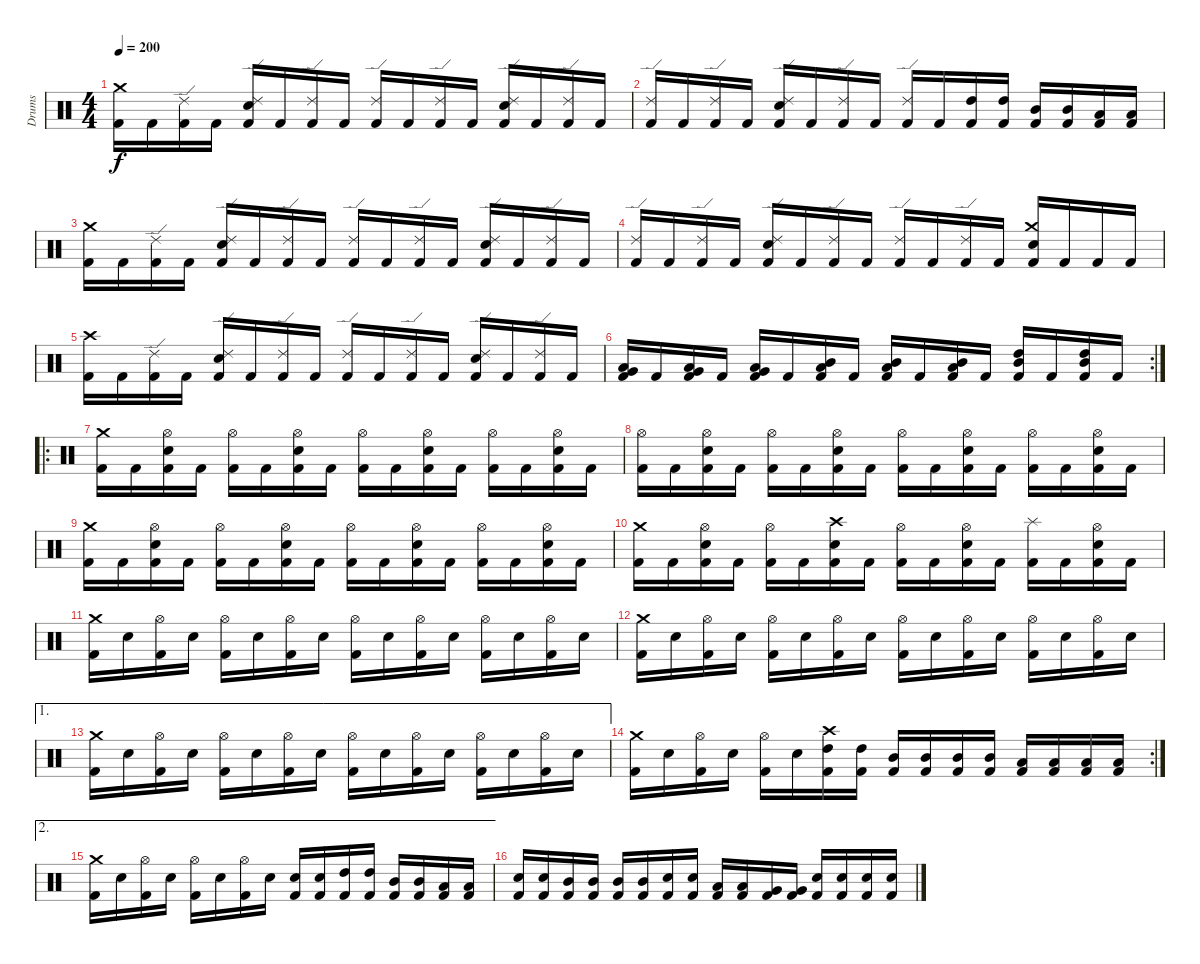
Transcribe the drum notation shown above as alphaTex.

\track ("Drums" "Drums") {instrument percussion}
\staff {score}
\articulation defaults
\ts (4 4)
\tempo 200
\clef neutral
\ks c
("Kick (hit) 2" "Crash medium (hit)").16{dy f} "Kick (hit) 2".16 ("Kick (hit) 2" "Ride (edge) 2").16 "Kick (hit) 2".16 ("Kick (hit) 2" "Electric Snare (hit)" "Ride (edge) 2").16 "Kick (hit) 2".16 ("Kick (hit) 2" "Ride (edge) 2").16 "Kick (hit) 2".16 ("Kick (hit) 2" "Ride (edge) 2").16 "Kick (hit) 2".16 ("Kick (hit) 2" "Ride (edge) 2").16 "Kick (hit) 2".16 ("Kick (hit) 2" "Electric Snare (hit)" "Ride (edge) 2").16 "Kick (hit) 2".16 ("Kick (hit) 2" "Ride (edge) 2").16 "Kick (hit) 2".16 |
("Kick (hit) 2" "Ride (edge) 2").16 "Kick (hit) 2".16 ("Kick (hit) 2" "Ride (edge) 2").16 "Kick (hit) 2".16 ("Kick (hit) 2" "Electric Snare (hit)" "Ride (edge) 2").16 "Kick (hit) 2".16 ("Kick (hit) 2" "Ride (edge) 2").16 "Kick (hit) 2".16 ("Kick (hit) 2" "Ride (edge) 2").16 "Kick (hit) 2".16 ("Kick (hit) 2" "High Tom (hit)").16 ("Kick (hit) 2" "High Tom (hit)").16 ("Kick (hit) 2" "Mid Tom (hit)").16 ("Kick (hit) 2" "Mid Tom (hit)").16 ("Kick (hit) 2" "Low Tom (hit)").16 ("Kick (hit) 2" "Low Tom (hit)").16 |
("Kick (hit) 2" "Crash medium (hit)").16 "Kick (hit) 2".16 ("Kick (hit) 2" "Ride (edge) 2").16 "Kick (hit) 2".16 ("Kick (hit) 2" "Electric Snare (hit)" "Ride (edge) 2").16 "Kick (hit) 2".16 ("Kick (hit) 2" "Ride (edge) 2").16 "Kick (hit) 2".16 ("Kick (hit) 2" "Ride (edge) 2").16 "Kick (hit) 2".16 ("Kick (hit) 2" "Ride (edge) 2").16 "Kick (hit) 2".16 ("Kick (hit) 2" "Electric Snare (hit)" "Ride (edge) 2").16 "Kick (hit) 2".16 ("Kick (hit) 2" "Ride (edge) 2").16 "Kick (hit) 2".16 |
("Kick (hit) 2" "Ride (edge) 2").16 "Kick (hit) 2".16 ("Kick (hit) 2" "Ride (edge) 2").16 "Kick (hit) 2".16 ("Kick (hit) 2" "Electric Snare (hit)" "Ride (edge) 2").16 "Kick (hit) 2".16 ("Kick (hit) 2" "Ride (edge) 2").16 "Kick (hit) 2".16 ("Kick (hit) 2" "Ride (edge) 2").16 "Kick (hit) 2".16 ("Kick (hit) 2" "Ride (edge) 2").16 "Kick (hit) 2".16 ("Kick (hit) 2" "Electric Snare (hit)" "Crash medium (hit)").16 "Kick (hit) 2".16 "Kick (hit) 2".16 "Kick (hit) 2".16 |
("Kick (hit) 2" "Crash high (hit)").16 "Kick (hit) 2".16 ("Kick (hit) 2" "Ride (edge) 2").16 "Kick (hit) 2".16 ("Kick (hit) 2" "Electric Snare (hit)" "Ride (edge) 2").16 "Kick (hit) 2".16 ("Kick (hit) 2" "Ride (edge) 2").16 "Kick (hit) 2".16 ("Kick (hit) 2" "Ride (edge) 2").16 "Kick (hit) 2".16 ("Kick (hit) 2" "Ride (edge) 2").16 "Kick (hit) 2".16 ("Kick (hit) 2" "Electric Snare (hit)" "Ride (edge) 2").16 "Kick (hit) 2".16 ("Kick (hit) 2" "Ride (edge) 2").16 "Kick (hit) 2".16 |
\rc 2
("Kick (hit) 2" "Very Low Tom (hit)" "Low Tom (hit)").16 "Kick (hit) 2".16 ("Kick (hit) 2" "Very Low Tom (hit)" "Low Tom (hit)").16 "Kick (hit) 2".16 ("Kick (hit) 2" "Very Low Tom (hit)" "Low Tom (hit)").16 "Kick (hit) 2".16 ("Kick (hit) 2" "Low Tom (hit)" "Mid Tom (hit)").16 "Kick (hit) 2".16 ("Kick (hit) 2" "Low Tom (hit)" "Mid Tom (hit)").16 "Kick (hit) 2".16 ("Kick (hit) 2" "Low Tom (hit)" "Mid Tom (hit)").16 "Kick (hit) 2".16 ("Kick (hit) 2" "Mid Tom (hit)" "High Tom (hit)").16 "Kick (hit) 2".16 ("Kick (hit) 2" "Mid Tom (hit)" "High Tom (hit)").16 "Kick (hit) 2".16 |
\ro
("Kick (hit) 2" "Crash medium (hit)").16 "Kick (hit) 2".16 ("Kick (hit) 2" "Electric Snare (hit)" "Hi-Hat (open)").16 "Kick (hit) 2".16 ("Kick (hit) 2" "Hi-Hat (open)").16 "Kick (hit) 2".16 ("Kick (hit) 2" "Electric Snare (hit)" "Hi-Hat (open)").16 "Kick (hit) 2".16 ("Kick (hit) 2" "Hi-Hat (open)").16 "Kick (hit) 2".16 ("Kick (hit) 2" "Electric Snare (hit)" "Hi-Hat (open)").16 "Kick (hit) 2".16 ("Kick (hit) 2" "Hi-Hat (open)").16 "Kick (hit) 2".16 ("Kick (hit) 2" "Electric Snare (hit)" "Hi-Hat (open)").16 "Kick (hit) 2".16 |
("Kick (hit) 2" "Hi-Hat (open)").16 "Kick (hit) 2".16 ("Kick (hit) 2" "Electric Snare (hit)" "Hi-Hat (open)").16 "Kick (hit) 2".16 ("Kick (hit) 2" "Hi-Hat (open)").16 "Kick (hit) 2".16 ("Kick (hit) 2" "Electric Snare (hit)" "Hi-Hat (open)").16 "Kick (hit) 2".16 ("Kick (hit) 2" "Hi-Hat (open)").16 "Kick (hit) 2".16 ("Kick (hit) 2" "Electric Snare (hit)" "Hi-Hat (open)").16 "Kick (hit) 2".16 ("Kick (hit) 2" "Hi-Hat (open)").16 "Kick (hit) 2".16 ("Kick (hit) 2" "Electric Snare (hit)" "Hi-Hat (open)").16 "Kick (hit) 2".16 |
("Kick (hit) 2" "Crash medium (hit)").16 "Kick (hit) 2".16 ("Kick (hit) 2" "Electric Snare (hit)" "Hi-Hat (open)").16 "Kick (hit) 2".16 ("Kick (hit) 2" "Hi-Hat (open)").16 "Kick (hit) 2".16 ("Kick (hit) 2" "Electric Snare (hit)" "Hi-Hat (open)").16 "Kick (hit) 2".16 ("Kick (hit) 2" "Hi-Hat (open)").16 "Kick (hit) 2".16 ("Kick (hit) 2" "Electric Snare (hit)" "Hi-Hat (open)").16 "Kick (hit) 2".16 ("Kick (hit) 2" "Hi-Hat (open)").16 "Kick (hit) 2".16 ("Kick (hit) 2" "Electric Snare (hit)" "Hi-Hat (open)").16 "Kick (hit) 2".16 |
("Kick (hit) 2" "Crash medium (hit)").16 "Kick (hit) 2".16 ("Kick (hit) 2" "Electric Snare (hit)" "Hi-Hat (open)").16 "Kick (hit) 2".16 ("Kick (hit) 2" "Hi-Hat (open)").16 "Kick (hit) 2".16 ("Kick (hit) 2" "Electric Snare (hit)" "Crash high (hit)").16 "Kick (hit) 2".16 ("Kick (hit) 2" "Hi-Hat (open)").16 "Kick (hit) 2".16 ("Kick (hit) 2" "Electric Snare (hit)" "Hi-Hat (open)").16 "Kick (hit) 2".16 ("Kick (hit) 2" "Splash (hit)").16 "Kick (hit) 2".16 ("Kick (hit) 2" "Electric Snare (hit)" "Hi-Hat (open)").16 "Kick (hit) 2".16 |
("Kick (hit) 2" "Crash medium (hit)").16 "Electric Snare (hit)".16 ("Kick (hit) 2" "Hi-Hat (open)").16 "Electric Snare (hit)".16 ("Kick (hit) 2" "Hi-Hat (open)").16 "Electric Snare (hit)".16 ("Kick (hit) 2" "Hi-Hat (open)").16 "Electric Snare (hit)".16 ("Kick (hit) 2" "Hi-Hat (open)").16 "Electric Snare (hit)".16 ("Kick (hit) 2" "Hi-Hat (open)").16 "Electric Snare (hit)".16 ("Kick (hit) 2" "Hi-Hat (open)").16 "Electric Snare (hit)".16 ("Kick (hit) 2" "Hi-Hat (open)").16 "Electric Snare (hit)".16 |
("Kick (hit) 2" "Crash medium (hit)").16 "Electric Snare (hit)".16 ("Kick (hit) 2" "Hi-Hat (open)").16 "Electric Snare (hit)".16 ("Kick (hit) 2" "Hi-Hat (open)").16 "Electric Snare (hit)".16 ("Kick (hit) 2" "Hi-Hat (open)").16 "Electric Snare (hit)".16 ("Kick (hit) 2" "Hi-Hat (open)").16 "Electric Snare (hit)".16 ("Kick (hit) 2" "Hi-Hat (open)").16 "Electric Snare (hit)".16 ("Kick (hit) 2" "Hi-Hat (open)").16 "Electric Snare (hit)".16 ("Kick (hit) 2" "Hi-Hat (open)").16 "Electric Snare (hit)".16 |
\ae 1
("Kick (hit) 2" "Crash medium (hit)").16 "Electric Snare (hit)".16 ("Kick (hit) 2" "Hi-Hat (open)").16 "Electric Snare (hit)".16 ("Kick (hit) 2" "Hi-Hat (open)").16 "Electric Snare (hit)".16 ("Kick (hit) 2" "Hi-Hat (open)").16 "Electric Snare (hit)".16 ("Kick (hit) 2" "Hi-Hat (open)").16 "Electric Snare (hit)".16 ("Kick (hit) 2" "Hi-Hat (open)").16 "Electric Snare (hit)".16 ("Kick (hit) 2" "Hi-Hat (open)").16 "Electric Snare (hit)".16 ("Kick (hit) 2" "Hi-Hat (open)").16 "Electric Snare (hit)".16 |
\rc 2
("Kick (hit) 2" "Crash medium (hit)").16 "Electric Snare (hit)".16 ("Kick (hit) 2" "Hi-Hat (open)").16 "Electric Snare (hit)".16 ("Kick (hit) 2" "Hi-Hat (open)").16 "Electric Snare (hit)".16 ("Kick (hit) 2" "High Tom (hit)" "Crash high (hit)").16 ("Kick (hit) 2" "High Tom (hit)").16 ("Kick (hit) 2" "Mid Tom (hit)").16 ("Kick (hit) 2" "Mid Tom (hit)").16 ("Kick (hit) 2" "Mid Tom (hit)").16 ("Kick (hit) 2" "Mid Tom (hit)").16 ("Kick (hit) 2" "Low Tom (hit)").16 ("Kick (hit) 2" "Low Tom (hit)").16 ("Kick (hit) 2" "Low Tom (hit)").16 ("Kick (hit) 2" "Low Tom (hit)").16 |
\ae 2
("Kick (hit) 2" "Crash medium (hit)").16 "Electric Snare (hit)".16 ("Kick (hit) 2" "Hi-Hat (open)").16 "Electric Snare (hit)".16 ("Kick (hit) 2" "Hi-Hat (open)").16 "Electric Snare (hit)".16 ("Kick (hit) 2" "Hi-Hat (open)").16 "Electric Snare (hit)".16 ("Kick (hit) 2" "Electric Snare (hit)").16 ("Kick (hit) 2" "Electric Snare (hit)").16 ("Kick (hit) 2" "High Tom (hit)").16 ("Kick (hit) 2" "High Tom (hit)").16 ("Kick (hit) 2" "Mid Tom (hit)").16 ("Kick (hit) 2" "Mid Tom (hit)").16 ("Kick (hit) 2" "Low Tom (hit)").16 ("Kick (hit) 2" "Low Tom (hit)").16 |
("Kick (hit) 2" "Electric Snare (hit)").16 ("Kick (hit) 2" "Electric Snare (hit)").16 ("Kick (hit) 2" "Mid Tom (hit)").16 ("Kick (hit) 2" "Mid Tom (hit)").16 ("Kick (hit) 2" "Mid Tom (hit)").16 ("Kick (hit) 2" "Mid Tom (hit)").16 ("Kick (hit) 2" "Electric Snare (hit)").16 ("Kick (hit) 2" "Electric Snare (hit)").16 ("Kick (hit) 2" "Low Tom (hit)").16 ("Kick (hit) 2" "Low Tom (hit)").16 ("Kick (hit) 2" "Very Low Tom (hit)").16 ("Kick (hit) 2" "Very Low Tom (hit)").16 ("Kick (hit) 2" "Electric Snare (hit)").16 ("Kick (hit) 2" "Electric Snare (hit)").16 ("Kick (hit) 2" "Electric Snare (hit)").16 ("Kick (hit) 2" "Electric Snare (hit)").16
